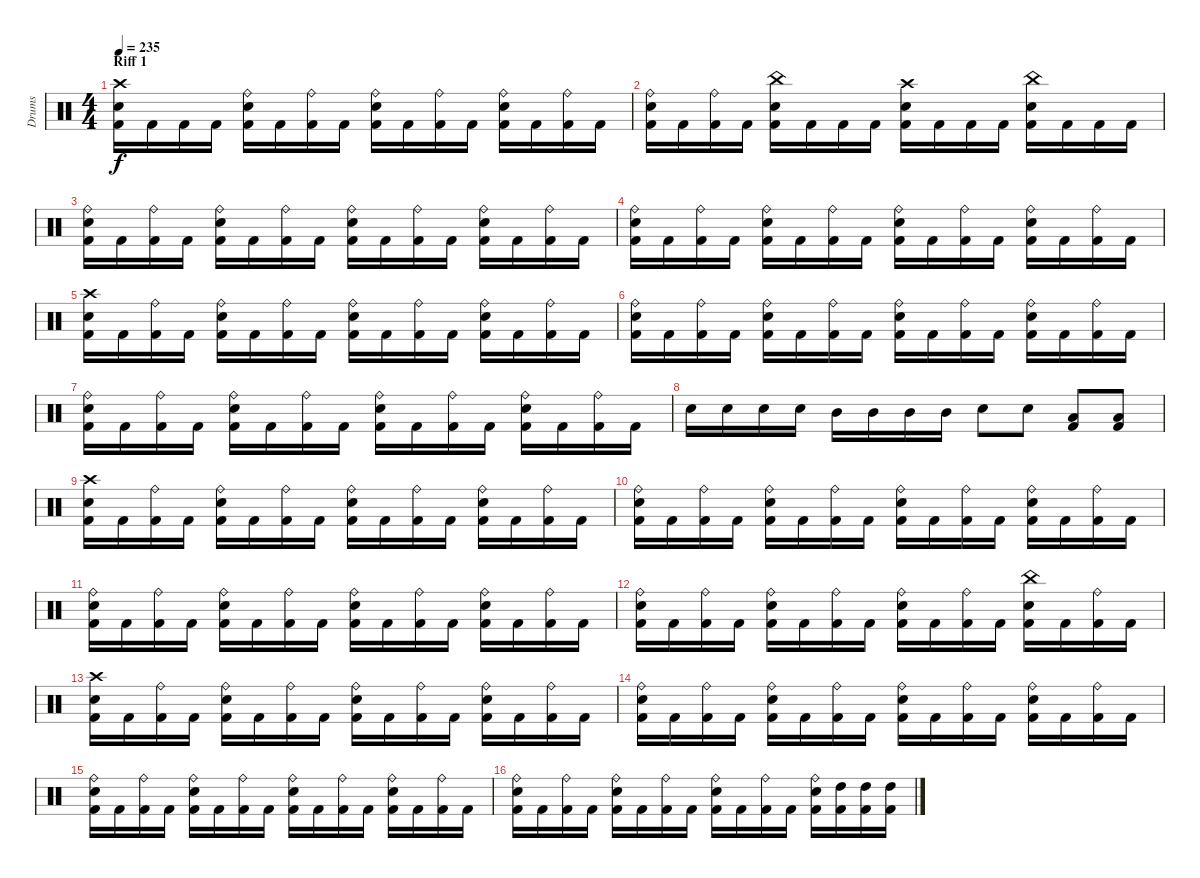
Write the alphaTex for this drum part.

\track ("Drums" "Drums") {instrument percussion}
\staff {score}
\articulation defaults
\ts (4 4)
\section ("" "Riff 1")
\tempo 235
\clef neutral
\ks c
("Kick (hit) 2" "Snare (hit) 2" "Crash high (hit)").16{dy f} "Kick (hit) 2".16 "Kick (hit) 2".16 "Kick (hit) 2".16 ("Kick (hit) 2" "Snare (hit) 2" "Ride (bell)").16 "Kick (hit) 2".16 ("Kick (hit) 2" "Ride (bell)").16 "Kick (hit) 2".16 ("Kick (hit) 2" "Snare (hit) 2" "Ride (bell)").16 "Kick (hit) 2".16 ("Kick (hit) 2" "Ride (bell)").16 "Kick (hit) 2".16 ("Kick (hit) 2" "Snare (hit) 2" "Ride (bell)").16 "Kick (hit) 2".16 ("Kick (hit) 2" "Ride (bell)").16 "Kick (hit) 2".16 |
("Kick (hit) 2" "Snare (hit) 2" "Ride (bell)").16 "Kick (hit) 2".16 ("Kick (hit) 2" "Ride (bell)").16 "Kick (hit) 2".16 ("Kick (hit) 2" "Snare (hit) 2" "China (hit)").16 "Kick (hit) 2".16 "Kick (hit) 2".16 "Kick (hit) 2".16 ("Kick (hit) 2" "Snare (hit) 2" "Crash high (hit)").16 "Kick (hit) 2".16 "Kick (hit) 2".16 "Kick (hit) 2".16 ("Kick (hit) 2" "Snare (hit) 2" "China (hit)").16 "Kick (hit) 2".16 "Kick (hit) 2".16 "Kick (hit) 2".16 |
("Kick (hit) 2" "Snare (hit) 2" "Ride (bell)").16 "Kick (hit) 2".16 ("Kick (hit) 2" "Ride (bell)").16 "Kick (hit) 2".16 ("Kick (hit) 2" "Snare (hit) 2" "Ride (bell)").16 "Kick (hit) 2".16 ("Kick (hit) 2" "Ride (bell)").16 "Kick (hit) 2".16 ("Kick (hit) 2" "Snare (hit) 2" "Ride (bell)").16 "Kick (hit) 2".16 ("Kick (hit) 2" "Ride (bell)").16 "Kick (hit) 2".16 ("Kick (hit) 2" "Snare (hit) 2" "Ride (bell)").16 "Kick (hit) 2".16 ("Kick (hit) 2" "Ride (bell)").16 "Kick (hit) 2".16 |
("Kick (hit) 2" "Snare (hit) 2" "Ride (bell)").16 "Kick (hit) 2".16 ("Kick (hit) 2" "Ride (bell)").16 "Kick (hit) 2".16 ("Kick (hit) 2" "Snare (hit) 2" "Ride (bell)").16 "Kick (hit) 2".16 ("Kick (hit) 2" "Ride (bell)").16 "Kick (hit) 2".16 ("Kick (hit) 2" "Snare (hit) 2" "Ride (bell)").16 "Kick (hit) 2".16 ("Kick (hit) 2" "Ride (bell)").16 "Kick (hit) 2".16 ("Kick (hit) 2" "Snare (hit) 2" "Ride (bell)").16 "Kick (hit) 2".16 ("Kick (hit) 2" "Ride (bell)").16 "Kick (hit) 2".16 |
("Kick (hit) 2" "Snare (hit) 2" "Crash high (hit)").16 "Kick (hit) 2".16 ("Kick (hit) 2" "Ride (bell)").16 "Kick (hit) 2".16 ("Kick (hit) 2" "Snare (hit) 2" "Ride (bell)").16 "Kick (hit) 2".16 ("Kick (hit) 2" "Ride (bell)").16 "Kick (hit) 2".16 ("Kick (hit) 2" "Snare (hit) 2" "Ride (bell)").16 "Kick (hit) 2".16 ("Kick (hit) 2" "Ride (bell)").16 "Kick (hit) 2".16 ("Kick (hit) 2" "Snare (hit) 2" "Ride (bell)").16 "Kick (hit) 2".16 ("Kick (hit) 2" "Ride (bell)").16 "Kick (hit) 2".16 |
("Kick (hit) 2" "Snare (hit) 2" "Ride (bell)").16 "Kick (hit) 2".16 ("Kick (hit) 2" "Ride (bell)").16 "Kick (hit) 2".16 ("Kick (hit) 2" "Snare (hit) 2" "Ride (bell)").16 "Kick (hit) 2".16 ("Kick (hit) 2" "Ride (bell)").16 "Kick (hit) 2".16 ("Kick (hit) 2" "Snare (hit) 2" "Ride (bell)").16 "Kick (hit) 2".16 ("Kick (hit) 2" "Ride (bell)").16 "Kick (hit) 2".16 ("Kick (hit) 2" "Snare (hit) 2" "Ride (bell)").16 "Kick (hit) 2".16 ("Kick (hit) 2" "Ride (bell)").16 "Kick (hit) 2".16 |
("Kick (hit) 2" "Snare (hit) 2" "Ride (bell)").16 "Kick (hit) 2".16 ("Kick (hit) 2" "Ride (bell)").16 "Kick (hit) 2".16 ("Kick (hit) 2" "Snare (hit) 2" "Ride (bell)").16 "Kick (hit) 2".16 ("Kick (hit) 2" "Ride (bell)").16 "Kick (hit) 2".16 ("Kick (hit) 2" "Snare (hit) 2" "Ride (bell)").16 "Kick (hit) 2".16 ("Kick (hit) 2" "Ride (bell)").16 "Kick (hit) 2".16 ("Kick (hit) 2" "Snare (hit) 2" "Ride (bell)").16 "Kick (hit) 2".16 ("Kick (hit) 2" "Ride (bell)").16 "Kick (hit) 2".16 |
"Snare (hit) 2".16 "Snare (hit) 2".16 "Snare (hit) 2".16 "Snare (hit) 2".16 "Mid Tom (hit)".16 "Mid Tom (hit)".16 "Mid Tom (hit)".16 "Mid Tom (hit)".16 "Snare (hit) 2".8 "Snare (hit) 2".8 ("Kick (hit) 2" "Low Tom (hit)").8 ("Kick (hit) 2" "Low Floor Tom (hit)").8 |
("Kick (hit) 2" "Snare (hit) 2" "Crash high (hit)").16 "Kick (hit) 2".16 ("Kick (hit) 2" "Ride (bell)").16 "Kick (hit) 2".16 ("Kick (hit) 2" "Snare (hit) 2" "Ride (bell)").16 "Kick (hit) 2".16 ("Kick (hit) 2" "Ride (bell)").16 "Kick (hit) 2".16 ("Kick (hit) 2" "Snare (hit) 2" "Ride (bell)").16 "Kick (hit) 2".16 ("Kick (hit) 2" "Ride (bell)").16 "Kick (hit) 2".16 ("Kick (hit) 2" "Snare (hit) 2" "Ride (bell)").16 "Kick (hit) 2".16 ("Kick (hit) 2" "Ride (bell)").16 "Kick (hit) 2".16 |
("Kick (hit) 2" "Snare (hit) 2" "Ride (bell)").16 "Kick (hit) 2".16 ("Kick (hit) 2" "Ride (bell)").16 "Kick (hit) 2".16 ("Kick (hit) 2" "Snare (hit) 2" "Ride (bell)").16 "Kick (hit) 2".16 ("Kick (hit) 2" "Ride (bell)").16 "Kick (hit) 2".16 ("Kick (hit) 2" "Snare (hit) 2" "Ride (bell)").16 "Kick (hit) 2".16 ("Kick (hit) 2" "Ride (bell)").16 "Kick (hit) 2".16 ("Kick (hit) 2" "Snare (hit) 2" "Ride (bell)").16 "Kick (hit) 2".16 ("Kick (hit) 2" "Ride (bell)").16 "Kick (hit) 2".16 |
("Kick (hit) 2" "Snare (hit) 2" "Ride (bell)").16 "Kick (hit) 2".16 ("Kick (hit) 2" "Ride (bell)").16 "Kick (hit) 2".16 ("Kick (hit) 2" "Snare (hit) 2" "Ride (bell)").16 "Kick (hit) 2".16 ("Kick (hit) 2" "Ride (bell)").16 "Kick (hit) 2".16 ("Kick (hit) 2" "Snare (hit) 2" "Ride (bell)").16 "Kick (hit) 2".16 ("Kick (hit) 2" "Ride (bell)").16 "Kick (hit) 2".16 ("Kick (hit) 2" "Snare (hit) 2" "Ride (bell)").16 "Kick (hit) 2".16 ("Kick (hit) 2" "Ride (bell)").16 "Kick (hit) 2".16 |
("Kick (hit) 2" "Snare (hit) 2" "Ride (bell)").16 "Kick (hit) 2".16 ("Kick (hit) 2" "Ride (bell)").16 "Kick (hit) 2".16 ("Kick (hit) 2" "Snare (hit) 2" "Ride (bell)").16 "Kick (hit) 2".16 ("Kick (hit) 2" "Ride (bell)").16 "Kick (hit) 2".16 ("Kick (hit) 2" "Snare (hit) 2" "Ride (bell)").16 "Kick (hit) 2".16 ("Kick (hit) 2" "Ride (bell)").16 "Kick (hit) 2".16 ("Kick (hit) 2" "Snare (hit) 2" "China (hit)").16 "Kick (hit) 2".16 ("Kick (hit) 2" "Ride (bell)").16 "Kick (hit) 2".16 |
("Kick (hit) 2" "Snare (hit) 2" "Crash high (hit)").16 "Kick (hit) 2".16 ("Kick (hit) 2" "Ride (bell)").16 "Kick (hit) 2".16 ("Kick (hit) 2" "Snare (hit) 2" "Ride (bell)").16 "Kick (hit) 2".16 ("Kick (hit) 2" "Ride (bell)").16 "Kick (hit) 2".16 ("Kick (hit) 2" "Snare (hit) 2" "Ride (bell)").16 "Kick (hit) 2".16 ("Kick (hit) 2" "Ride (bell)").16 "Kick (hit) 2".16 ("Kick (hit) 2" "Snare (hit) 2" "Ride (bell)").16 "Kick (hit) 2".16 ("Kick (hit) 2" "Ride (bell)").16 "Kick (hit) 2".16 |
("Kick (hit) 2" "Snare (hit) 2" "Ride (bell)").16 "Kick (hit) 2".16 ("Kick (hit) 2" "Ride (bell)").16 "Kick (hit) 2".16 ("Kick (hit) 2" "Snare (hit) 2" "Ride (bell)").16 "Kick (hit) 2".16 ("Kick (hit) 2" "Ride (bell)").16 "Kick (hit) 2".16 ("Kick (hit) 2" "Snare (hit) 2" "Ride (bell)").16 "Kick (hit) 2".16 ("Kick (hit) 2" "Ride (bell)").16 "Kick (hit) 2".16 ("Kick (hit) 2" "Snare (hit) 2" "Ride (bell)").16 "Kick (hit) 2".16 ("Kick (hit) 2" "Ride (bell)").16 "Kick (hit) 2".16 |
("Kick (hit) 2" "Snare (hit) 2" "Ride (bell)").16 "Kick (hit) 2".16 ("Kick (hit) 2" "Ride (bell)").16 "Kick (hit) 2".16 ("Kick (hit) 2" "Snare (hit) 2" "Ride (bell)").16 "Kick (hit) 2".16 ("Kick (hit) 2" "Ride (bell)").16 "Kick (hit) 2".16 ("Kick (hit) 2" "Snare (hit) 2" "Ride (bell)").16 "Kick (hit) 2".16 ("Kick (hit) 2" "Ride (bell)").16 "Kick (hit) 2".16 ("Kick (hit) 2" "Snare (hit) 2" "Ride (bell)").16 "Kick (hit) 2".16 ("Kick (hit) 2" "Ride (bell)").16 "Kick (hit) 2".16 |
("Kick (hit) 2" "Snare (hit) 2" "Ride (bell)").16 "Kick (hit) 2".16 ("Kick (hit) 2" "Ride (bell)").16 "Kick (hit) 2".16 ("Kick (hit) 2" "Snare (hit) 2" "Ride (bell)").16 "Kick (hit) 2".16 ("Kick (hit) 2" "Ride (bell)").16 "Kick (hit) 2".16 ("Kick (hit) 2" "Snare (hit) 2" "Ride (bell)").16 "Kick (hit) 2".16 ("Kick (hit) 2" "Ride (bell)").16 "Kick (hit) 2".16 ("Kick (hit) 2" "Snare (hit) 2" "Ride (bell)").16 ("Kick (hit) 2" "High Tom (hit)").16 ("Kick (hit) 2" "High Tom (hit)").16 ("Kick (hit) 2" "High Tom (hit)").16
